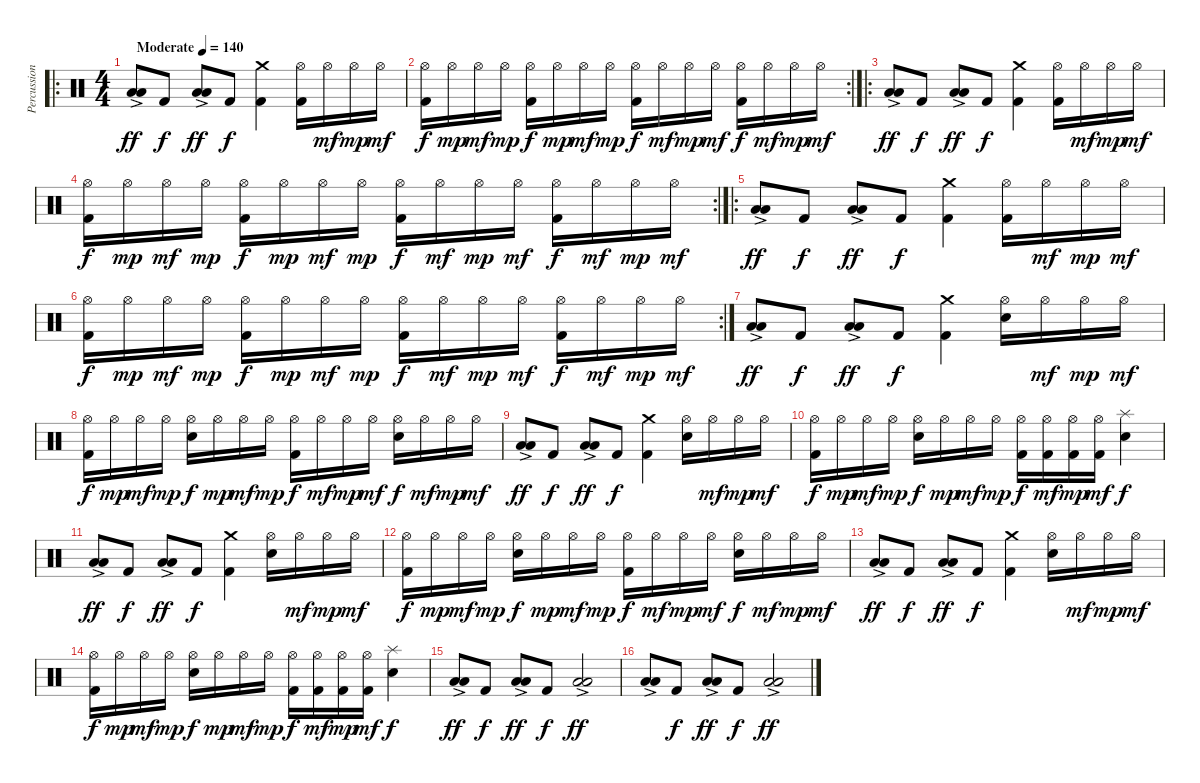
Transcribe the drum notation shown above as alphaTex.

\track ("Percussion" "Percussion") {instrument percussion}
\staff {score}
\articulation defaults
\ro
\ts (4 4)
\tempo (140 "Moderate")
\clef neutral
\ks c
("Low Tom (hit)" "Low Floor Tom (hit)"{ac}).8{dy ff} "Kick (hit) 2".8{dy f} ("Low Tom (hit)" "Low Floor Tom (hit)"{ac}).8{dy ff} "Kick (hit) 2".8{dy f} ("Crash medium (hit)" "Kick (hit) 2").4 ("Hi-Hat (open)" "Kick (hit) 2").16 "Hi-Hat (open)".16{dy mf} "Hi-Hat (open)".16{dy mp} "Hi-Hat (open)".16{dy mf} |
\rc 2
("Hi-Hat (open)" "Kick (hit) 2").16{dy f} "Hi-Hat (open)".16{dy mp} "Hi-Hat (open)".16{dy mf} "Hi-Hat (open)".16{dy mp} ("Hi-Hat (open)" "Kick (hit) 2").16{dy f} "Hi-Hat (open)".16{dy mp} "Hi-Hat (open)".16{dy mf} "Hi-Hat (open)".16{dy mp} ("Hi-Hat (open)" "Kick (hit) 2").16{dy f} "Hi-Hat (open)".16{dy mf} "Hi-Hat (open)".16{dy mp} "Hi-Hat (open)".16{dy mf} ("Hi-Hat (open)" "Kick (hit) 2").16{dy f} "Hi-Hat (open)".16{dy mf} "Hi-Hat (open)".16{dy mp} "Hi-Hat (open)".16{dy mf} |
\ro
("Low Tom (hit)" "Low Floor Tom (hit)"{ac}).8{dy ff} "Kick (hit) 2".8{dy f} ("Low Tom (hit)" "Low Floor Tom (hit)"{ac}).8{dy ff} "Kick (hit) 2".8{dy f} ("Crash medium (hit)" "Kick (hit) 2").4 ("Hi-Hat (open)" "Kick (hit) 2").16 "Hi-Hat (open)".16{dy mf} "Hi-Hat (open)".16{dy mp} "Hi-Hat (open)".16{dy mf} |
\rc 2
("Hi-Hat (open)" "Kick (hit) 2").16{dy f} "Hi-Hat (open)".16{dy mp} "Hi-Hat (open)".16{dy mf} "Hi-Hat (open)".16{dy mp} ("Hi-Hat (open)" "Kick (hit) 2").16{dy f} "Hi-Hat (open)".16{dy mp} "Hi-Hat (open)".16{dy mf} "Hi-Hat (open)".16{dy mp} ("Hi-Hat (open)" "Kick (hit) 2").16{dy f} "Hi-Hat (open)".16{dy mf} "Hi-Hat (open)".16{dy mp} "Hi-Hat (open)".16{dy mf} ("Hi-Hat (open)" "Kick (hit) 2").16{dy f} "Hi-Hat (open)".16{dy mf} "Hi-Hat (open)".16{dy mp} "Hi-Hat (open)".16{dy mf} |
\ro
("Low Tom (hit)" "Low Floor Tom (hit)"{ac}).8{dy ff} "Kick (hit) 2".8{dy f} ("Low Tom (hit)" "Low Floor Tom (hit)"{ac}).8{dy ff} "Kick (hit) 2".8{dy f} ("Crash medium (hit)" "Kick (hit) 2").4 ("Hi-Hat (open)" "Kick (hit) 2").16 "Hi-Hat (open)".16{dy mf} "Hi-Hat (open)".16{dy mp} "Hi-Hat (open)".16{dy mf} |
\rc 2
("Hi-Hat (open)" "Kick (hit) 2").16{dy f} "Hi-Hat (open)".16{dy mp} "Hi-Hat (open)".16{dy mf} "Hi-Hat (open)".16{dy mp} ("Hi-Hat (open)" "Kick (hit) 2").16{dy f} "Hi-Hat (open)".16{dy mp} "Hi-Hat (open)".16{dy mf} "Hi-Hat (open)".16{dy mp} ("Hi-Hat (open)" "Kick (hit) 2").16{dy f} "Hi-Hat (open)".16{dy mf} "Hi-Hat (open)".16{dy mp} "Hi-Hat (open)".16{dy mf} ("Hi-Hat (open)" "Kick (hit) 2").16{dy f} "Hi-Hat (open)".16{dy mf} "Hi-Hat (open)".16{dy mp} "Hi-Hat (open)".16{dy mf} |
("Low Tom (hit)" "Low Floor Tom (hit)"{ac}).8{dy ff} "Kick (hit) 2".8{dy f} ("Low Tom (hit)" "Low Floor Tom (hit)"{ac}).8{dy ff} "Kick (hit) 2".8{dy f} ("Crash medium (hit)" "Kick (hit) 2").4 ("Hi-Hat (open)" "Electric Snare (hit)").16 "Hi-Hat (open)".16{dy mf} "Hi-Hat (open)".16{dy mp} "Hi-Hat (open)".16{dy mf} |
("Hi-Hat (open)" "Kick (hit) 2").16{dy f} "Hi-Hat (open)".16{dy mp} "Hi-Hat (open)".16{dy mf} "Hi-Hat (open)".16{dy mp} ("Hi-Hat (open)" "Electric Snare (hit)").16{dy f} "Hi-Hat (open)".16{dy mp} "Hi-Hat (open)".16{dy mf} "Hi-Hat (open)".16{dy mp} ("Hi-Hat (open)" "Kick (hit) 2").16{dy f} "Hi-Hat (open)".16{dy mf} "Hi-Hat (open)".16{dy mp} "Hi-Hat (open)".16{dy mf} ("Hi-Hat (open)" "Electric Snare (hit)").16{dy f} "Hi-Hat (open)".16{dy mf} "Hi-Hat (open)".16{dy mp} "Hi-Hat (open)".16{dy mf} |
("Low Tom (hit)" "Low Floor Tom (hit)"{ac}).8{dy ff} "Kick (hit) 2".8{dy f} ("Low Tom (hit)" "Low Floor Tom (hit)"{ac}).8{dy ff} "Kick (hit) 2".8{dy f} ("Crash medium (hit)" "Kick (hit) 2").4 ("Hi-Hat (open)" "Electric Snare (hit)").16 "Hi-Hat (open)".16{dy mf} "Hi-Hat (open)".16{dy mp} "Hi-Hat (open)".16{dy mf} |
("Hi-Hat (open)" "Kick (hit) 2").16{dy f} "Hi-Hat (open)".16{dy mp} "Hi-Hat (open)".16{dy mf} "Hi-Hat (open)".16{dy mp} ("Hi-Hat (open)" "Electric Snare (hit)").16{dy f} "Hi-Hat (open)".16{dy mp} "Hi-Hat (open)".16{dy mf} "Hi-Hat (open)".16{dy mp} ("Hi-Hat (open)" "Kick (hit) 2").16{dy f} ("Hi-Hat (open)" "Kick (hit) 2").16{dy mf} ("Hi-Hat (open)" "Kick (hit) 2").16{dy mp} ("Hi-Hat (open)" "Kick (hit) 2").16{dy mf} ("Splash (hit)" "Electric Snare (hit)").4{dy f} |
("Low Tom (hit)" "Low Floor Tom (hit)"{ac}).8{dy ff} "Kick (hit) 2".8{dy f} ("Low Tom (hit)" "Low Floor Tom (hit)"{ac}).8{dy ff} "Kick (hit) 2".8{dy f} ("Crash medium (hit)" "Kick (hit) 2").4 ("Hi-Hat (open)" "Electric Snare (hit)").16 "Hi-Hat (open)".16{dy mf} "Hi-Hat (open)".16{dy mp} "Hi-Hat (open)".16{dy mf} |
("Hi-Hat (open)" "Kick (hit) 2").16{dy f} "Hi-Hat (open)".16{dy mp} "Hi-Hat (open)".16{dy mf} "Hi-Hat (open)".16{dy mp} ("Hi-Hat (open)" "Electric Snare (hit)").16{dy f} "Hi-Hat (open)".16{dy mp} "Hi-Hat (open)".16{dy mf} "Hi-Hat (open)".16{dy mp} ("Hi-Hat (open)" "Kick (hit) 2").16{dy f} "Hi-Hat (open)".16{dy mf} "Hi-Hat (open)".16{dy mp} "Hi-Hat (open)".16{dy mf} ("Hi-Hat (open)" "Electric Snare (hit)").16{dy f} "Hi-Hat (open)".16{dy mf} "Hi-Hat (open)".16{dy mp} "Hi-Hat (open)".16{dy mf} |
("Low Tom (hit)" "Low Floor Tom (hit)"{ac}).8{dy ff} "Kick (hit) 2".8{dy f} ("Low Tom (hit)" "Low Floor Tom (hit)"{ac}).8{dy ff} "Kick (hit) 2".8{dy f} ("Crash medium (hit)" "Kick (hit) 2").4 ("Hi-Hat (open)" "Electric Snare (hit)").16 "Hi-Hat (open)".16{dy mf} "Hi-Hat (open)".16{dy mp} "Hi-Hat (open)".16{dy mf} |
("Hi-Hat (open)" "Kick (hit) 2").16{dy f} "Hi-Hat (open)".16{dy mp} "Hi-Hat (open)".16{dy mf} "Hi-Hat (open)".16{dy mp} ("Hi-Hat (open)" "Electric Snare (hit)").16{dy f} "Hi-Hat (open)".16{dy mp} "Hi-Hat (open)".16{dy mf} "Hi-Hat (open)".16{dy mp} ("Hi-Hat (open)" "Kick (hit) 2").16{dy f} ("Hi-Hat (open)" "Kick (hit) 2").16{dy mf} ("Hi-Hat (open)" "Kick (hit) 2").16{dy mp} ("Hi-Hat (open)" "Kick (hit) 2").16{dy mf} ("Splash (hit)" "Electric Snare (hit)").4{dy f} |
("Low Tom (hit)" "Low Floor Tom (hit)"{ac}).8{dy ff} "Kick (hit) 2".8{dy f} ("Low Tom (hit)" "Low Floor Tom (hit)"{ac}).8{dy ff} "Kick (hit) 2".8{dy f} ("Low Tom (hit)"{ac} "Low Floor Tom (hit)"{ac}).2{dy ff} |
("Low Tom (hit)" "Low Floor Tom (hit)"{ac}).8 "Kick (hit) 2".8{dy f} ("Low Tom (hit)" "Low Floor Tom (hit)"{ac}).8{dy ff} "Kick (hit) 2".8{dy f} ("Low Tom (hit)"{ac} "Low Floor Tom (hit)"{ac}).2{dy ff}
